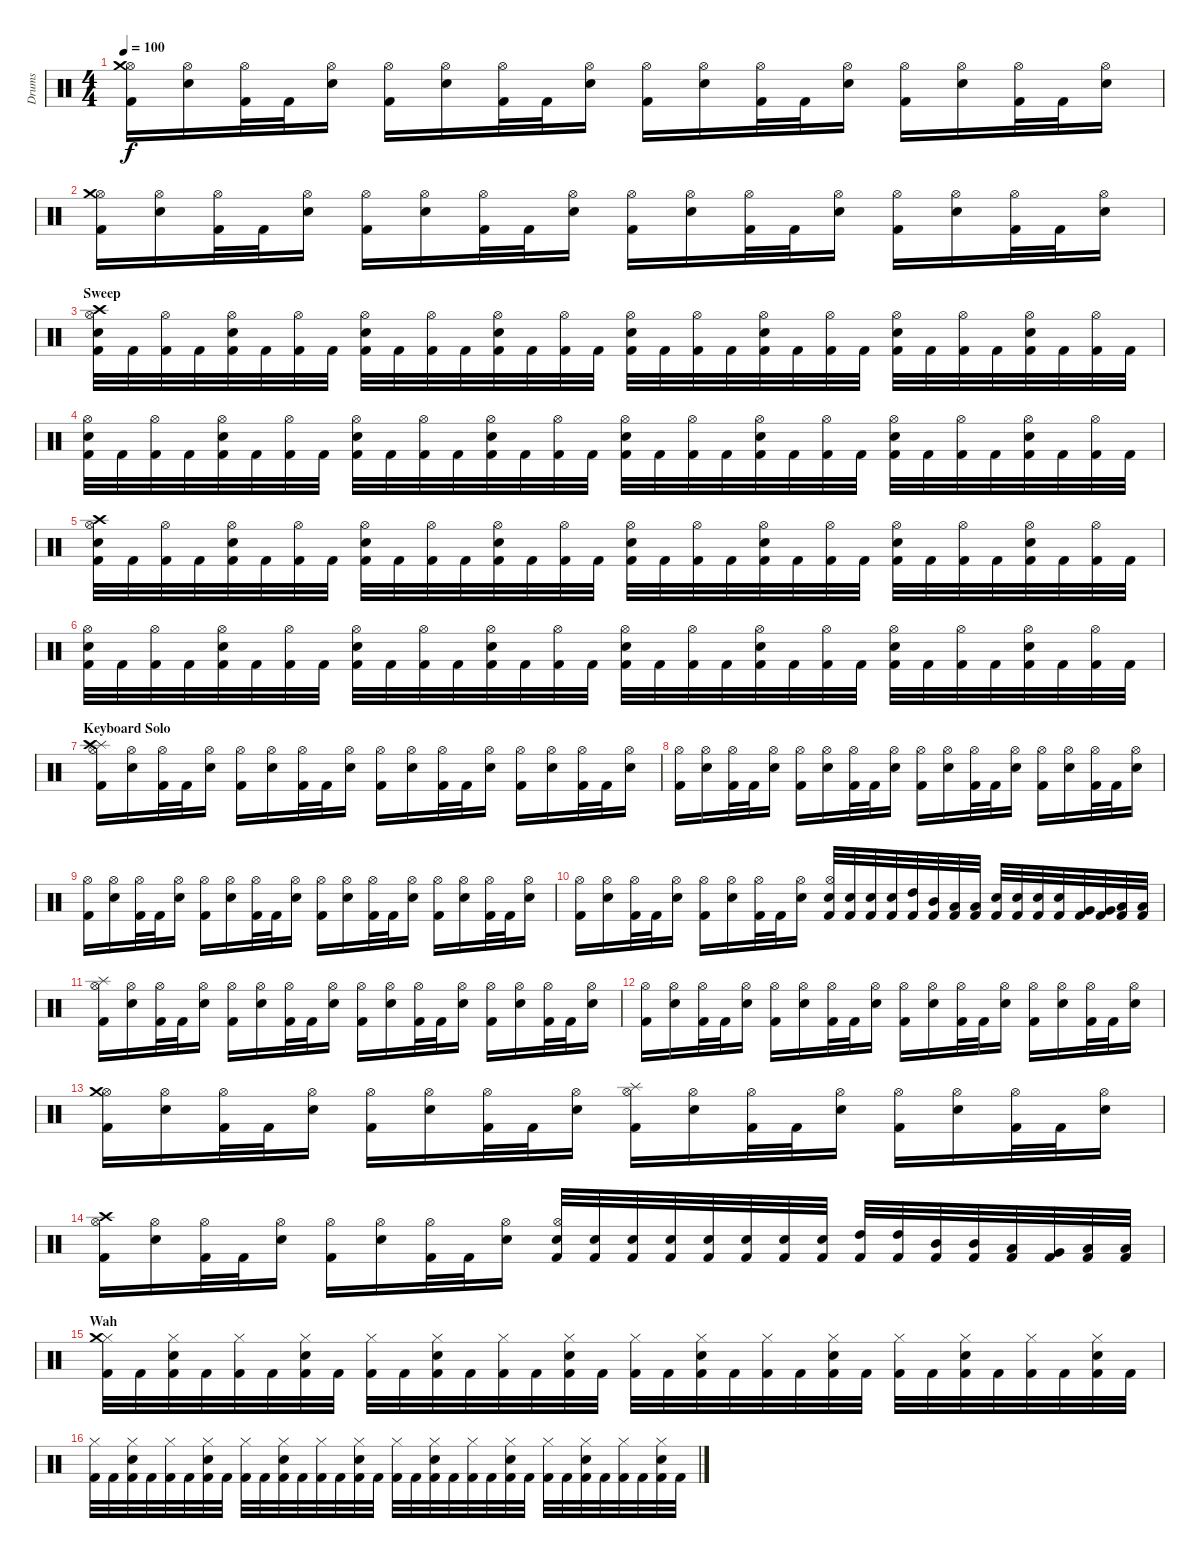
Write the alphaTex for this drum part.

\track ("Drums" "Drums") {instrument percussion}
\staff {score}
\articulation defaults
\ts (4 4)
\tempo 100
\clef neutral
\ks c
("Kick (hit) 2" "Hi-Hat (open)" "Crash medium (hit)").16{dy f} ("Snare (hit) 2" "Hi-Hat (open)").16 ("Kick (hit) 2" "Hi-Hat (open)").32 "Kick (hit) 2".32 ("Snare (hit) 2" "Hi-Hat (open)").16 ("Kick (hit) 2" "Hi-Hat (open)").16 ("Snare (hit) 2" "Hi-Hat (open)").16 ("Kick (hit) 2" "Hi-Hat (open)").32 "Kick (hit) 2".32 ("Snare (hit) 2" "Hi-Hat (open)").16 ("Kick (hit) 2" "Hi-Hat (open)").16 ("Snare (hit) 2" "Hi-Hat (open)").16 ("Kick (hit) 2" "Hi-Hat (open)").32 "Kick (hit) 2".32 ("Snare (hit) 2" "Hi-Hat (open)").16 ("Kick (hit) 2" "Hi-Hat (open)").16 ("Snare (hit) 2" "Hi-Hat (open)").16 ("Kick (hit) 2" "Hi-Hat (open)").32 "Kick (hit) 2".32 ("Snare (hit) 2" "Hi-Hat (open)").16 |
("Kick (hit) 2" "Hi-Hat (open)" "Crash medium (hit)").16 ("Snare (hit) 2" "Hi-Hat (open)").16 ("Kick (hit) 2" "Hi-Hat (open)").32 "Kick (hit) 2".32 ("Snare (hit) 2" "Hi-Hat (open)").16 ("Kick (hit) 2" "Hi-Hat (open)").16 ("Snare (hit) 2" "Hi-Hat (open)").16 ("Kick (hit) 2" "Hi-Hat (open)").32 "Kick (hit) 2".32 ("Snare (hit) 2" "Hi-Hat (open)").16 ("Kick (hit) 2" "Hi-Hat (open)").16 ("Snare (hit) 2" "Hi-Hat (open)").16 ("Kick (hit) 2" "Hi-Hat (open)").32 "Kick (hit) 2".32 ("Snare (hit) 2" "Hi-Hat (open)").16 ("Kick (hit) 2" "Hi-Hat (open)").16 ("Snare (hit) 2" "Hi-Hat (open)").16 ("Kick (hit) 2" "Hi-Hat (open)").32 "Kick (hit) 2".32 ("Snare (hit) 2" "Hi-Hat (open)").16 |
\section ("" "Sweep")
("Kick (hit) 2" "Snare (hit) 2" "Hi-Hat (open)" "Crash high (hit)").32 "Kick (hit) 2".32 ("Kick (hit) 2" "Hi-Hat (open)").32 "Kick (hit) 2".32 ("Kick (hit) 2" "Snare (hit) 2" "Hi-Hat (open)").32 "Kick (hit) 2".32 ("Kick (hit) 2" "Hi-Hat (open)").32 "Kick (hit) 2".32 ("Kick (hit) 2" "Snare (hit) 2" "Hi-Hat (open)").32 "Kick (hit) 2".32 ("Kick (hit) 2" "Hi-Hat (open)").32 "Kick (hit) 2".32 ("Kick (hit) 2" "Snare (hit) 2" "Hi-Hat (open)").32 "Kick (hit) 2".32 ("Kick (hit) 2" "Hi-Hat (open)").32 "Kick (hit) 2".32 ("Kick (hit) 2" "Snare (hit) 2" "Hi-Hat (open)").32 "Kick (hit) 2".32 ("Kick (hit) 2" "Hi-Hat (open)").32 "Kick (hit) 2".32 ("Kick (hit) 2" "Snare (hit) 2" "Hi-Hat (open)").32 "Kick (hit) 2".32 ("Kick (hit) 2" "Hi-Hat (open)").32 "Kick (hit) 2".32 ("Kick (hit) 2" "Snare (hit) 2" "Hi-Hat (open)").32 "Kick (hit) 2".32 ("Kick (hit) 2" "Hi-Hat (open)").32 "Kick (hit) 2".32 ("Kick (hit) 2" "Snare (hit) 2" "Hi-Hat (open)").32 "Kick (hit) 2".32 ("Kick (hit) 2" "Hi-Hat (open)").32 "Kick (hit) 2".32 |
("Kick (hit) 2" "Snare (hit) 2" "Hi-Hat (open)").32 "Kick (hit) 2".32 ("Kick (hit) 2" "Hi-Hat (open)").32 "Kick (hit) 2".32 ("Kick (hit) 2" "Snare (hit) 2" "Hi-Hat (open)").32 "Kick (hit) 2".32 ("Kick (hit) 2" "Hi-Hat (open)").32 "Kick (hit) 2".32 ("Kick (hit) 2" "Snare (hit) 2" "Hi-Hat (open)").32 "Kick (hit) 2".32 ("Kick (hit) 2" "Hi-Hat (open)").32 "Kick (hit) 2".32 ("Kick (hit) 2" "Snare (hit) 2" "Hi-Hat (open)").32 "Kick (hit) 2".32 ("Kick (hit) 2" "Hi-Hat (open)").32 "Kick (hit) 2".32 ("Kick (hit) 2" "Snare (hit) 2" "Hi-Hat (open)").32 "Kick (hit) 2".32 ("Kick (hit) 2" "Hi-Hat (open)").32 "Kick (hit) 2".32 ("Kick (hit) 2" "Snare (hit) 2" "Hi-Hat (open)").32 "Kick (hit) 2".32 ("Kick (hit) 2" "Hi-Hat (open)").32 "Kick (hit) 2".32 ("Kick (hit) 2" "Snare (hit) 2" "Hi-Hat (open)").32 "Kick (hit) 2".32 ("Kick (hit) 2" "Hi-Hat (open)").32 "Kick (hit) 2".32 ("Kick (hit) 2" "Snare (hit) 2" "Hi-Hat (open)").32 "Kick (hit) 2".32 ("Kick (hit) 2" "Hi-Hat (open)").32 "Kick (hit) 2".32 |
("Kick (hit) 2" "Snare (hit) 2" "Hi-Hat (open)" "Crash high (hit)").32 "Kick (hit) 2".32 ("Kick (hit) 2" "Hi-Hat (open)").32 "Kick (hit) 2".32 ("Kick (hit) 2" "Snare (hit) 2" "Hi-Hat (open)").32 "Kick (hit) 2".32 ("Kick (hit) 2" "Hi-Hat (open)").32 "Kick (hit) 2".32 ("Kick (hit) 2" "Snare (hit) 2" "Hi-Hat (open)").32 "Kick (hit) 2".32 ("Kick (hit) 2" "Hi-Hat (open)").32 "Kick (hit) 2".32 ("Kick (hit) 2" "Snare (hit) 2" "Hi-Hat (open)").32 "Kick (hit) 2".32 ("Kick (hit) 2" "Hi-Hat (open)").32 "Kick (hit) 2".32 ("Kick (hit) 2" "Snare (hit) 2" "Hi-Hat (open)").32 "Kick (hit) 2".32 ("Kick (hit) 2" "Hi-Hat (open)").32 "Kick (hit) 2".32 ("Kick (hit) 2" "Snare (hit) 2" "Hi-Hat (open)").32 "Kick (hit) 2".32 ("Kick (hit) 2" "Hi-Hat (open)").32 "Kick (hit) 2".32 ("Kick (hit) 2" "Snare (hit) 2" "Hi-Hat (open)").32 "Kick (hit) 2".32 ("Kick (hit) 2" "Hi-Hat (open)").32 "Kick (hit) 2".32 ("Kick (hit) 2" "Snare (hit) 2" "Hi-Hat (open)").32 "Kick (hit) 2".32 ("Kick (hit) 2" "Hi-Hat (open)").32 "Kick (hit) 2".32 |
("Kick (hit) 2" "Snare (hit) 2" "Hi-Hat (open)").32 "Kick (hit) 2".32 ("Kick (hit) 2" "Hi-Hat (open)").32 "Kick (hit) 2".32 ("Kick (hit) 2" "Snare (hit) 2" "Hi-Hat (open)").32 "Kick (hit) 2".32 ("Kick (hit) 2" "Hi-Hat (open)").32 "Kick (hit) 2".32 ("Kick (hit) 2" "Snare (hit) 2" "Hi-Hat (open)").32 "Kick (hit) 2".32 ("Kick (hit) 2" "Hi-Hat (open)").32 "Kick (hit) 2".32 ("Kick (hit) 2" "Snare (hit) 2" "Hi-Hat (open)").32 "Kick (hit) 2".32 ("Kick (hit) 2" "Hi-Hat (open)").32 "Kick (hit) 2".32 ("Kick (hit) 2" "Snare (hit) 2" "Hi-Hat (open)").32 "Kick (hit) 2".32 ("Kick (hit) 2" "Hi-Hat (open)").32 "Kick (hit) 2".32 ("Kick (hit) 2" "Snare (hit) 2" "Hi-Hat (open)").32 "Kick (hit) 2".32 ("Kick (hit) 2" "Hi-Hat (open)").32 "Kick (hit) 2".32 ("Kick (hit) 2" "Snare (hit) 2" "Hi-Hat (open)").32 "Kick (hit) 2".32 ("Kick (hit) 2" "Hi-Hat (open)").32 "Kick (hit) 2".32 ("Kick (hit) 2" "Snare (hit) 2" "Hi-Hat (open)").32 "Kick (hit) 2".32 ("Kick (hit) 2" "Hi-Hat (open)").32 "Kick (hit) 2".32 |
\section ("" "Keyboard Solo")
("Kick (hit) 2" "Hi-Hat (open)" "Splash (hit)" "Crash high (hit)").16 ("Snare (hit) 2" "Hi-Hat (open)").16 ("Kick (hit) 2" "Hi-Hat (open)").32 "Kick (hit) 2".32 ("Snare (hit) 2" "Hi-Hat (open)").16 ("Kick (hit) 2" "Hi-Hat (open)").16 ("Snare (hit) 2" "Hi-Hat (open)").16 ("Kick (hit) 2" "Hi-Hat (open)").32 "Kick (hit) 2".32 ("Snare (hit) 2" "Hi-Hat (open)").16 ("Kick (hit) 2" "Hi-Hat (open)").16 ("Snare (hit) 2" "Hi-Hat (open)").16 ("Kick (hit) 2" "Hi-Hat (open)").32 "Kick (hit) 2".32 ("Snare (hit) 2" "Hi-Hat (open)").16 ("Kick (hit) 2" "Hi-Hat (open)").16 ("Snare (hit) 2" "Hi-Hat (open)").16 ("Kick (hit) 2" "Hi-Hat (open)").32 "Kick (hit) 2".32 ("Snare (hit) 2" "Hi-Hat (open)").16 |
("Kick (hit) 2" "Hi-Hat (open)").16 ("Snare (hit) 2" "Hi-Hat (open)").16 ("Kick (hit) 2" "Hi-Hat (open)").32 "Kick (hit) 2".32 ("Snare (hit) 2" "Hi-Hat (open)").16 ("Kick (hit) 2" "Hi-Hat (open)").16 ("Snare (hit) 2" "Hi-Hat (open)").16 ("Kick (hit) 2" "Hi-Hat (open)").32 "Kick (hit) 2".32 ("Snare (hit) 2" "Hi-Hat (open)").16 ("Kick (hit) 2" "Hi-Hat (open)").16 ("Snare (hit) 2" "Hi-Hat (open)").16 ("Kick (hit) 2" "Hi-Hat (open)").32 "Kick (hit) 2".32 ("Snare (hit) 2" "Hi-Hat (open)").16 ("Kick (hit) 2" "Hi-Hat (open)").16 ("Snare (hit) 2" "Hi-Hat (open)").16 ("Kick (hit) 2" "Hi-Hat (open)").32 "Kick (hit) 2".32 ("Snare (hit) 2" "Hi-Hat (open)").16 |
("Kick (hit) 2" "Hi-Hat (open)").16 ("Snare (hit) 2" "Hi-Hat (open)").16 ("Kick (hit) 2" "Hi-Hat (open)").32 "Kick (hit) 2".32 ("Snare (hit) 2" "Hi-Hat (open)").16 ("Kick (hit) 2" "Hi-Hat (open)").16 ("Snare (hit) 2" "Hi-Hat (open)").16 ("Kick (hit) 2" "Hi-Hat (open)").32 "Kick (hit) 2".32 ("Snare (hit) 2" "Hi-Hat (open)").16 ("Kick (hit) 2" "Hi-Hat (open)").16 ("Snare (hit) 2" "Hi-Hat (open)").16 ("Kick (hit) 2" "Hi-Hat (open)").32 "Kick (hit) 2".32 ("Snare (hit) 2" "Hi-Hat (open)").16 ("Kick (hit) 2" "Hi-Hat (open)").16 ("Snare (hit) 2" "Hi-Hat (open)").16 ("Kick (hit) 2" "Hi-Hat (open)").32 "Kick (hit) 2".32 ("Snare (hit) 2" "Hi-Hat (open)").16 |
("Kick (hit) 2" "Hi-Hat (open)").16 ("Snare (hit) 2" "Hi-Hat (open)").16 ("Kick (hit) 2" "Hi-Hat (open)").32 "Kick (hit) 2".32 ("Snare (hit) 2" "Hi-Hat (open)").16 ("Kick (hit) 2" "Hi-Hat (open)").16 ("Snare (hit) 2" "Hi-Hat (open)").16 ("Kick (hit) 2" "Hi-Hat (open)").32 "Kick (hit) 2".32 ("Snare (hit) 2" "Hi-Hat (open)").16 ("Kick (hit) 2" "Snare (hit) 2" "Hi-Hat (open)").32 ("Kick (hit) 2" "Snare (hit) 2").32 ("Kick (hit) 2" "Snare (hit) 2").32 ("Kick (hit) 2" "Snare (hit) 2").32 ("Kick (hit) 2" "High Tom (hit)").32 ("Kick (hit) 2" "Mid Tom (hit)").32 ("Kick (hit) 2" "Low Tom (hit)").32 ("Kick (hit) 2" "Low Tom (hit)").32 ("Kick (hit) 2" "Snare (hit) 2").32 ("Kick (hit) 2" "Snare (hit) 2").32 ("Kick (hit) 2" "Snare (hit) 2").32 ("Kick (hit) 2" "Snare (hit) 2").32 ("Kick (hit) 2" "Very Low Tom (hit)").32 ("Kick (hit) 2" "Very Low Tom (hit)").32 ("Kick (hit) 2" "Low Floor Tom (hit)").32 ("Kick (hit) 2" "Low Floor Tom (hit)").32 |
("Kick (hit) 2" "Hi-Hat (open)" "Splash (hit)").16 ("Snare (hit) 2" "Hi-Hat (open)").16 ("Kick (hit) 2" "Hi-Hat (open)").32 "Kick (hit) 2".32 ("Snare (hit) 2" "Hi-Hat (open)").16 ("Kick (hit) 2" "Hi-Hat (open)").16 ("Snare (hit) 2" "Hi-Hat (open)").16 ("Kick (hit) 2" "Hi-Hat (open)").32 "Kick (hit) 2".32 ("Snare (hit) 2" "Hi-Hat (open)").16 ("Kick (hit) 2" "Hi-Hat (open)").16 ("Snare (hit) 2" "Hi-Hat (open)").16 ("Kick (hit) 2" "Hi-Hat (open)").32 "Kick (hit) 2".32 ("Snare (hit) 2" "Hi-Hat (open)").16 ("Kick (hit) 2" "Hi-Hat (open)").16 ("Snare (hit) 2" "Hi-Hat (open)").16 ("Kick (hit) 2" "Hi-Hat (open)").32 "Kick (hit) 2".32 ("Snare (hit) 2" "Hi-Hat (open)").16 |
("Kick (hit) 2" "Hi-Hat (open)").16 ("Snare (hit) 2" "Hi-Hat (open)").16 ("Kick (hit) 2" "Hi-Hat (open)").32 "Kick (hit) 2".32 ("Snare (hit) 2" "Hi-Hat (open)").16 ("Kick (hit) 2" "Hi-Hat (open)").16 ("Snare (hit) 2" "Hi-Hat (open)").16 ("Kick (hit) 2" "Hi-Hat (open)").32 "Kick (hit) 2".32 ("Snare (hit) 2" "Hi-Hat (open)").16 ("Kick (hit) 2" "Hi-Hat (open)").16 ("Snare (hit) 2" "Hi-Hat (open)").16 ("Kick (hit) 2" "Hi-Hat (open)").32 "Kick (hit) 2".32 ("Snare (hit) 2" "Hi-Hat (open)").16 ("Kick (hit) 2" "Hi-Hat (open)").16 ("Snare (hit) 2" "Hi-Hat (open)").16 ("Kick (hit) 2" "Hi-Hat (open)").32 "Kick (hit) 2".32 ("Snare (hit) 2" "Hi-Hat (open)").16 |
("Kick (hit) 2" "Hi-Hat (open)" "Crash medium (hit)").16 ("Snare (hit) 2" "Hi-Hat (open)").16 ("Kick (hit) 2" "Hi-Hat (open)").32 "Kick (hit) 2".32 ("Snare (hit) 2" "Hi-Hat (open)").16 ("Kick (hit) 2" "Hi-Hat (open)").16 ("Snare (hit) 2" "Hi-Hat (open)").16 ("Kick (hit) 2" "Hi-Hat (open)").32 "Kick (hit) 2".32 ("Snare (hit) 2" "Hi-Hat (open)").16 ("Kick (hit) 2" "Hi-Hat (open)" "Splash (hit)").16 ("Snare (hit) 2" "Hi-Hat (open)").16 ("Kick (hit) 2" "Hi-Hat (open)").32 "Kick (hit) 2".32 ("Snare (hit) 2" "Hi-Hat (open)").16 ("Kick (hit) 2" "Hi-Hat (open)").16 ("Snare (hit) 2" "Hi-Hat (open)").16 ("Kick (hit) 2" "Hi-Hat (open)").32 "Kick (hit) 2".32 ("Snare (hit) 2" "Hi-Hat (open)").16 |
("Kick (hit) 2" "Hi-Hat (open)" "Crash high (hit)").16 ("Snare (hit) 2" "Hi-Hat (open)").16 ("Kick (hit) 2" "Hi-Hat (open)").32 "Kick (hit) 2".32 ("Snare (hit) 2" "Hi-Hat (open)").16 ("Kick (hit) 2" "Hi-Hat (open)").16 ("Snare (hit) 2" "Hi-Hat (open)").16 ("Kick (hit) 2" "Hi-Hat (open)").32 "Kick (hit) 2".32 ("Snare (hit) 2" "Hi-Hat (open)").16 ("Kick (hit) 2" "Snare (hit) 2" "Hi-Hat (open)").32 ("Kick (hit) 2" "Snare (hit) 2").32 ("Kick (hit) 2" "Snare (hit) 2").32 ("Kick (hit) 2" "Snare (hit) 2").32 ("Kick (hit) 2" "Snare (hit) 2").32 ("Kick (hit) 2" "Snare (hit) 2").32 ("Kick (hit) 2" "Snare (hit) 2").32 ("Kick (hit) 2" "Snare (hit) 2").32 ("Kick (hit) 2" "High Tom (hit)").32 ("Kick (hit) 2" "High Tom (hit)").32 ("Kick (hit) 2" "Mid Tom (hit)").32 ("Kick (hit) 2" "Mid Tom (hit)").32 ("Kick (hit) 2" "Low Tom (hit)").32 ("Kick (hit) 2" "Very Low Tom (hit)").32 ("Kick (hit) 2" "Low Floor Tom (hit)").32 ("Kick (hit) 2" "Low Floor Tom (hit)").32 |
\section ("" "Wah")
("Kick (hit) 2" "Hi-Hat (closed)" "Crash medium (hit)").32 "Kick (hit) 2".32 ("Kick (hit) 2" "Snare (hit) 2" "Hi-Hat (closed)").32 "Kick (hit) 2".32 ("Kick (hit) 2" "Hi-Hat (closed)").32 "Kick (hit) 2".32 ("Kick (hit) 2" "Snare (hit) 2" "Hi-Hat (closed)").32 "Kick (hit) 2".32 ("Kick (hit) 2" "Hi-Hat (closed)").32 "Kick (hit) 2".32 ("Kick (hit) 2" "Snare (hit) 2" "Hi-Hat (closed)").32 "Kick (hit) 2".32 ("Kick (hit) 2" "Hi-Hat (closed)").32 "Kick (hit) 2".32 ("Kick (hit) 2" "Snare (hit) 2" "Hi-Hat (closed)").32 "Kick (hit) 2".32 ("Kick (hit) 2" "Hi-Hat (closed)").32 "Kick (hit) 2".32 ("Kick (hit) 2" "Snare (hit) 2" "Hi-Hat (closed)").32 "Kick (hit) 2".32 ("Kick (hit) 2" "Hi-Hat (closed)").32 "Kick (hit) 2".32 ("Kick (hit) 2" "Snare (hit) 2" "Hi-Hat (closed)").32 "Kick (hit) 2".32 ("Kick (hit) 2" "Hi-Hat (closed)").32 "Kick (hit) 2".32 ("Kick (hit) 2" "Snare (hit) 2" "Hi-Hat (closed)").32 "Kick (hit) 2".32 ("Kick (hit) 2" "Hi-Hat (closed)").32 "Kick (hit) 2".32 ("Kick (hit) 2" "Snare (hit) 2" "Hi-Hat (closed)").32 "Kick (hit) 2".32 |
("Kick (hit) 2" "Hi-Hat (closed)").32 "Kick (hit) 2".32 ("Kick (hit) 2" "Snare (hit) 2" "Hi-Hat (closed)").32 "Kick (hit) 2".32 ("Kick (hit) 2" "Hi-Hat (closed)").32 "Kick (hit) 2".32 ("Kick (hit) 2" "Snare (hit) 2" "Hi-Hat (closed)").32 "Kick (hit) 2".32 ("Kick (hit) 2" "Hi-Hat (closed)").32 "Kick (hit) 2".32 ("Kick (hit) 2" "Snare (hit) 2" "Hi-Hat (closed)").32 "Kick (hit) 2".32 ("Kick (hit) 2" "Hi-Hat (closed)").32 "Kick (hit) 2".32 ("Kick (hit) 2" "Snare (hit) 2" "Hi-Hat (closed)").32 "Kick (hit) 2".32 ("Kick (hit) 2" "Hi-Hat (closed)").32 "Kick (hit) 2".32 ("Kick (hit) 2" "Snare (hit) 2" "Hi-Hat (closed)").32 "Kick (hit) 2".32 ("Kick (hit) 2" "Hi-Hat (closed)").32 "Kick (hit) 2".32 ("Kick (hit) 2" "Snare (hit) 2" "Hi-Hat (closed)").32 "Kick (hit) 2".32 ("Kick (hit) 2" "Hi-Hat (closed)").32 "Kick (hit) 2".32 ("Kick (hit) 2" "Snare (hit) 2" "Hi-Hat (closed)").32 "Kick (hit) 2".32 ("Kick (hit) 2" "Hi-Hat (closed)").32 "Kick (hit) 2".32 ("Kick (hit) 2" "Snare (hit) 2" "Hi-Hat (closed)").32 "Kick (hit) 2".32
